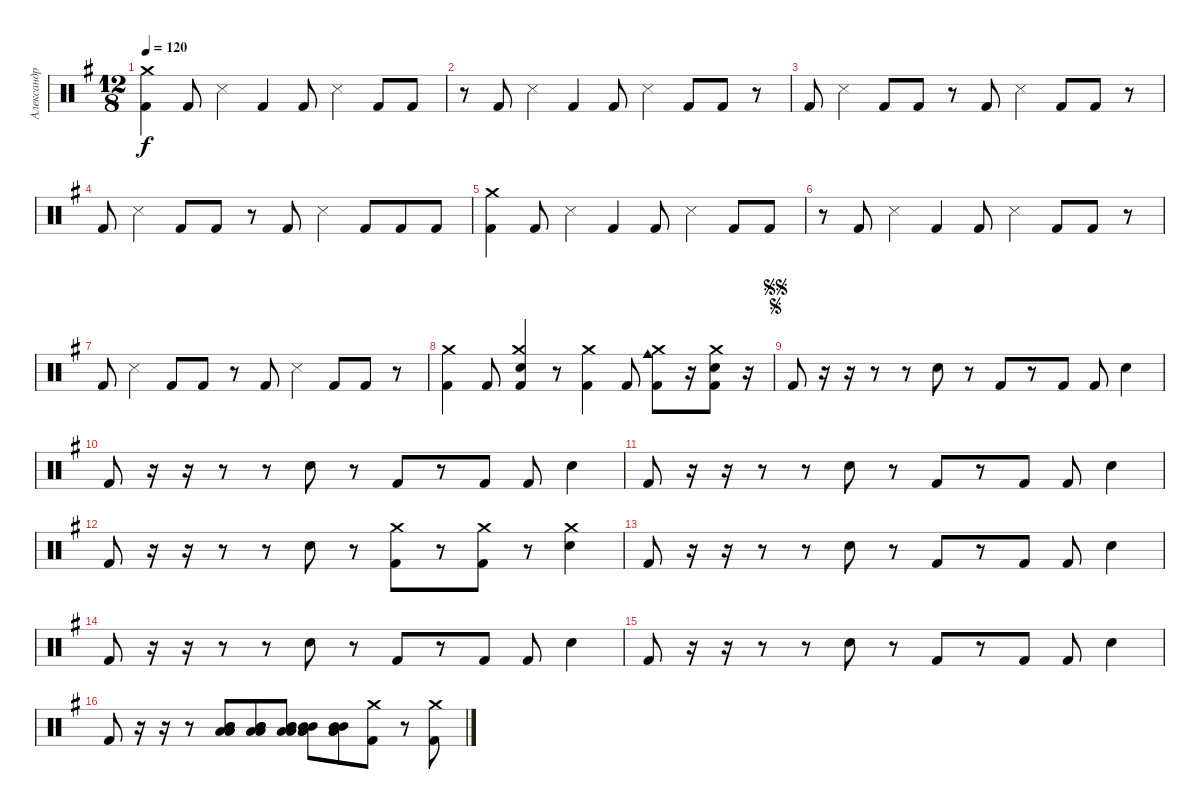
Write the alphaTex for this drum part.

\track ("Александр Манякин" "Александр ") {instrument percussion}
\staff {score}
\articulation defaults
\ts (12 8)
\tempo 120
\clef neutral
\ks g
("Kick (hit) 2" "Crash medium (hit)").4{dy f} "Kick (hit) 2".8 "Snare (side stick) 3".4 "Kick (hit) 2".4 "Kick (hit) 2".8 "Snare (side stick) 3".4 "Kick (hit) 2".8 "Kick (hit) 2".8 |
r.8 "Kick (hit) 2".8 "Snare (side stick) 3".4 "Kick (hit) 2".4 "Kick (hit) 2".8 "Snare (side stick) 3".4 "Kick (hit) 2".8 "Kick (hit) 2".8 r.8 |
"Kick (hit) 2".8 "Snare (side stick) 3".4 "Kick (hit) 2".8 "Kick (hit) 2".8 r.8 "Kick (hit) 2".8 "Snare (side stick) 3".4 "Kick (hit) 2".8 "Kick (hit) 2".8 r.8 |
"Kick (hit) 2".8 "Snare (side stick) 3".4 "Kick (hit) 2".8 "Kick (hit) 2".8 r.8 "Kick (hit) 2".8 "Snare (side stick) 3".4 "Kick (hit) 2".8 "Kick (hit) 2".8 "Kick (hit) 2".8 |
("Kick (hit) 2" "Crash medium (hit)").4 "Kick (hit) 2".8 "Snare (side stick) 3".4 "Kick (hit) 2".4 "Kick (hit) 2".8 "Snare (side stick) 3".4 "Kick (hit) 2".8 "Kick (hit) 2".8 |
r.8 "Kick (hit) 2".8 "Snare (side stick) 3".4 "Kick (hit) 2".4 "Kick (hit) 2".8 "Snare (side stick) 3".4 "Kick (hit) 2".8 "Kick (hit) 2".8 r.8 |
"Kick (hit) 2".8 "Snare (side stick) 3".4 "Kick (hit) 2".8 "Kick (hit) 2".8 r.8 "Kick (hit) 2".8 "Snare (side stick) 3".4 "Kick (hit) 2".8 "Kick (hit) 2".8 r.8 |
("Kick (hit) 2" "Crash medium (hit)").4 "Kick (hit) 2".8 ("Kick (hit) 2" "Snare (hit) 2" "Crash medium (hit)").4 r.8 ("Kick (hit) 2" "Crash medium (hit)").4 "Kick (hit) 2".8 ("Kick (hit) 2" "Cowbell medium (hit)" "Crash medium (hit)").8 r.16 ("Kick (hit) 2" "Snare (hit) 2" "Crash medium (hit)").8 r.16 |
\jump segno
\jump segnosegno "Kick (hit) 2".8
r.16 r.16 r.8 r.8 "Snare (hit) 2".8 r.8 "Kick (hit) 2".8 r.8 "Kick (hit) 2".8 "Kick (hit) 2".8 "Snare (hit) 2".4 |
"Kick (hit) 2".8 r.16 r.16 r.8 r.8 "Snare (hit) 2".8 r.8 "Kick (hit) 2".8 r.8 "Kick (hit) 2".8 "Kick (hit) 2".8 "Snare (hit) 2".4 |
"Kick (hit) 2".8 r.16 r.16 r.8 r.8 "Snare (hit) 2".8 r.8 "Kick (hit) 2".8 r.8 "Kick (hit) 2".8 "Kick (hit) 2".8 "Snare (hit) 2".4 |
"Kick (hit) 2".8 r.16 r.16 r.8 r.8 "Snare (hit) 2".8 r.8 ("Kick (hit) 2" "Crash medium (hit)").8 r.8 ("Kick (hit) 2" "Crash medium (hit)").8 r.8 ("Snare (hit) 2" "Crash medium (hit)").4 |
"Kick (hit) 2".8 r.16 r.16 r.8 r.8 "Snare (hit) 2".8 r.8 "Kick (hit) 2".8 r.8 "Kick (hit) 2".8 "Kick (hit) 2".8 "Snare (hit) 2".4 |
"Kick (hit) 2".8 r.16 r.16 r.8 r.8 "Snare (hit) 2".8 r.8 "Kick (hit) 2".8 r.8 "Kick (hit) 2".8 "Kick (hit) 2".8 "Snare (hit) 2".4 |
"Kick (hit) 2".8 r.16 r.16 r.8 r.8 "Snare (hit) 2".8 r.8 "Kick (hit) 2".8 r.8 "Kick (hit) 2".8 "Kick (hit) 2".8 "Snare (hit) 2".4 |
"Kick (hit) 2".8 r.16 r.16 r.8 ("Low Tom (hit)" "Low Tom (hit)" "Mid Tom (hit)" "Mid Tom (hit)").8 ("Low Tom (hit)" "Low Tom (hit)" "Mid Tom (hit)" "Mid Tom (hit)").8 ("Low Tom (hit)" "Low Tom (hit)" "Mid Tom (hit)" "Mid Tom (hit)").8 ("Low Tom (hit)" "Low Tom (hit)" "Mid Tom (hit)" "Mid Tom (hit)").8 ("Low Tom (hit)" "Low Tom (hit)" "Mid Tom (hit)" "Mid Tom (hit)").8 ("Kick (hit) 2" "Crash medium (hit)").8 r.8 ("Kick (hit) 2" "Crash medium (hit)").8
